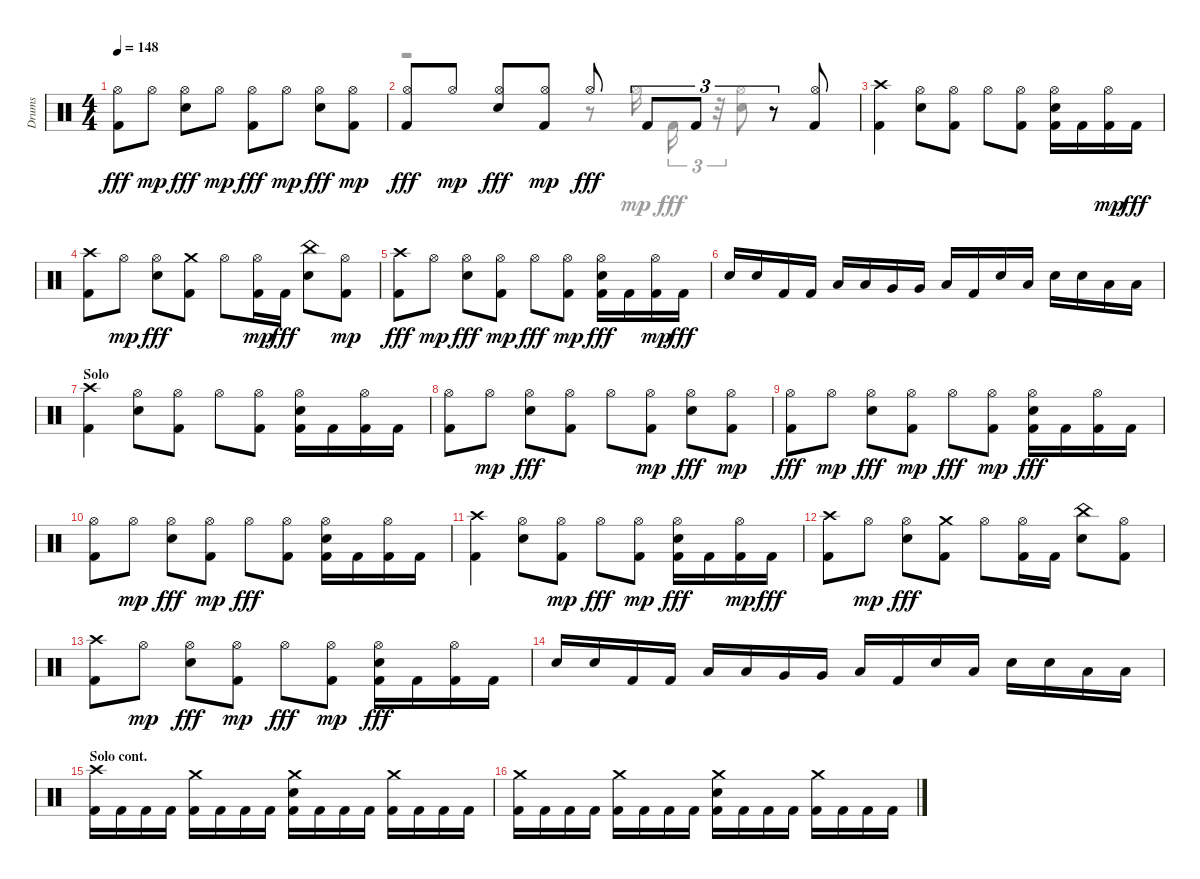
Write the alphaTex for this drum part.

\track ("Drums" "Drums") {instrument percussion}
\staff {score}
\articulation defaults
\voice
\ts (4 4)
\tempo 148
\clef neutral
\ks aminor
("Hi-Hat (open)" "Kick (hit) 2").8{dy fff} "Hi-Hat (open)".8{dy mp} ("Hi-Hat (open)" "Snare (hit) 2").8{dy fff} "Hi-Hat (open)".8{dy mp} ("Hi-Hat (open)" "Kick (hit) 2").8{dy fff} "Hi-Hat (open)".8{dy mp} ("Snare (hit) 2" "Hi-Hat (open)").8{dy fff} ("Hi-Hat (open)" "Kick (hit) 2").8{dy mp} |
("Hi-Hat (open)" "Kick (hit) 2").8{dy fff} "Hi-Hat (open)".8{dy mp} ("Snare (hit) 2" "Hi-Hat (open)").8{dy fff} ("Hi-Hat (open)" "Kick (hit) 2").8{dy mp} "Hi-Hat (open)".8{dy fff} "Kick (hit) 2".8{tu (3 2)} "Kick (hit) 2".8{tu (3 2)} r.8{tu (3 2)} ("Hi-Hat (open)" "Kick (hit) 2").8 |
("Kick (hit) 2" "Crash high (hit)").4 ("Hi-Hat (open)" "Snare (hit) 2").8 ("Hi-Hat (open)" "Kick (hit) 2").8 "Hi-Hat (open)".8 ("Hi-Hat (open)" "Kick (hit) 2").8 ("Snare (hit) 2" "Kick (hit) 2" "Hi-Hat (open)").16 "Kick (hit) 2".16 ("Hi-Hat (open)" "Kick (hit) 2").16{dy mp} "Kick (hit) 2".16{dy fff} |
("Crash high (hit)" "Kick (hit) 2").8 "Hi-Hat (open)".8{dy mp} ("Hi-Hat (open)" "Snare (hit) 2").8{dy fff} ("Crash medium (hit)" "Kick (hit) 2").8 "Hi-Hat (open)".8 ("Kick (hit) 2" "Hi-Hat (open)").16{dy mp} "Kick (hit) 2".16{dy fff} ("China (hit)" "Snare (hit) 2").8 ("Kick (hit) 2" "Hi-Hat (open)").8{dy mp} |
("Crash high (hit)" "Kick (hit) 2").8{dy fff} "Hi-Hat (open)".8{dy mp} ("Snare (hit) 2" "Hi-Hat (open)").8{dy fff} ("Hi-Hat (open)" "Kick (hit) 2").8{dy mp} "Hi-Hat (open)".8{dy fff} ("Hi-Hat (open)" "Kick (hit) 2").8{dy mp} ("Hi-Hat (open)" "Snare (hit) 2" "Kick (hit) 2").16{dy fff} "Kick (hit) 2".16 ("Kick (hit) 2" "Hi-Hat (open)").16{dy mp} "Kick (hit) 2".16{dy fff} |
"Snare (hit) 2".16 "Snare (hit) 2".16 "Kick (hit) 2".16 "Kick (hit) 2".16 "Low Tom (hit)".16 "Low Tom (hit)".16 "Very Low Tom (hit)".16 "Very Low Tom (hit)".16 "Low Floor Tom (hit)".16 "Kick (hit) 2".16 "Snare (hit) 2".16 "Low Floor Tom (hit)".16 "Snare (hit) 2".16 "Snare (hit) 2".16 "Low Floor Tom (hit)".16 "Low Floor Tom (hit)".16 |
\section ("" "Solo")
("Crash high (hit)" "Kick (hit) 2").4 ("Hi-Hat (open)" "Snare (hit) 2").8 ("Kick (hit) 2" "Hi-Hat (open)").8 "Hi-Hat (open)".8 ("Hi-Hat (open)" "Kick (hit) 2").8 ("Snare (hit) 2" "Kick (hit) 2" "Hi-Hat (open)").16 "Kick (hit) 2".16 ("Kick (hit) 2" "Hi-Hat (open)").16 "Kick (hit) 2".16 |
("Kick (hit) 2" "Hi-Hat (open)").8 "Hi-Hat (open)".8{dy mp} ("Hi-Hat (open)" "Snare (hit) 2").8{dy fff} ("Hi-Hat (open)" "Kick (hit) 2").8 "Hi-Hat (open)".8 ("Hi-Hat (open)" "Kick (hit) 2").8{dy mp} ("Snare (hit) 2" "Hi-Hat (open)").8{dy fff} ("Hi-Hat (open)" "Kick (hit) 2").8{dy mp} |
("Kick (hit) 2" "Hi-Hat (open)").8{dy fff} "Hi-Hat (open)".8{dy mp} ("Hi-Hat (open)" "Snare (hit) 2").8{dy fff} ("Kick (hit) 2" "Hi-Hat (open)").8{dy mp} "Hi-Hat (open)".8{dy fff} ("Kick (hit) 2" "Hi-Hat (open)").8{dy mp} ("Hi-Hat (open)" "Snare (hit) 2" "Kick (hit) 2").16{dy fff} "Kick (hit) 2".16 ("Hi-Hat (open)" "Kick (hit) 2").16 "Kick (hit) 2".16 |
("Kick (hit) 2" "Hi-Hat (open)").8 "Hi-Hat (open)".8{dy mp} ("Hi-Hat (open)" "Snare (hit) 2").8{dy fff} ("Hi-Hat (open)" "Kick (hit) 2").8{dy mp} "Hi-Hat (open)".8{dy fff} ("Hi-Hat (open)" "Kick (hit) 2").8 ("Kick (hit) 2" "Hi-Hat (open)" "Snare (hit) 2").16 "Kick (hit) 2".16 ("Kick (hit) 2" "Hi-Hat (open)").16 "Kick (hit) 2".16 |
("Kick (hit) 2" "Crash high (hit)").4 ("Hi-Hat (open)" "Snare (hit) 2").8 ("Hi-Hat (open)" "Kick (hit) 2").8{dy mp} "Hi-Hat (open)".8{dy fff} ("Hi-Hat (open)" "Kick (hit) 2").8{dy mp} ("Snare (hit) 2" "Kick (hit) 2" "Hi-Hat (open)").16{dy fff} "Kick (hit) 2".16 ("Hi-Hat (open)" "Kick (hit) 2").16{dy mp} "Kick (hit) 2".16{dy fff} |
("Crash high (hit)" "Kick (hit) 2").8 "Hi-Hat (open)".8{dy mp} ("Hi-Hat (open)" "Snare (hit) 2").8{dy fff} ("Crash medium (hit)" "Kick (hit) 2").8 "Hi-Hat (open)".8 ("Hi-Hat (open)" "Kick (hit) 2").16 "Kick (hit) 2".16 ("China (hit)" "Snare (hit) 2").8 ("Kick (hit) 2" "Hi-Hat (open)").8 |
("Kick (hit) 2" "Crash high (hit)").8 "Hi-Hat (open)".8{dy mp} ("Snare (hit) 2" "Hi-Hat (open)").8{dy fff} ("Kick (hit) 2" "Hi-Hat (open)").8{dy mp} "Hi-Hat (open)".8{dy fff} ("Kick (hit) 2" "Hi-Hat (open)").8{dy mp} ("Kick (hit) 2" "Hi-Hat (open)" "Snare (hit) 2").16{dy fff} "Kick (hit) 2".16 ("Kick (hit) 2" "Hi-Hat (open)").16 "Kick (hit) 2".16 |
"Snare (hit) 2".16 "Snare (hit) 2".16 "Kick (hit) 2".16 "Kick (hit) 2".16 "Low Tom (hit)".16 "Low Tom (hit)".16 "Very Low Tom (hit)".16 "Very Low Tom (hit)".16 "Low Floor Tom (hit)".16 "Kick (hit) 2".16 "Snare (hit) 2".16 "Low Floor Tom (hit)".16 "Snare (hit) 2".16 "Snare (hit) 2".16 "Low Floor Tom (hit)".16 "Low Floor Tom (hit)".16 |
\section ("" "Solo cont.")
("Crash high (hit)" "Kick (hit) 2").16 "Kick (hit) 2".16 "Kick (hit) 2".16 "Kick (hit) 2".16 ("Kick (hit) 2" "Crash medium (hit)").16 "Kick (hit) 2".16 "Kick (hit) 2".16 "Kick (hit) 2".16 ("Snare (hit) 2" "Kick (hit) 2" "Crash medium (hit)").16 "Kick (hit) 2".16 "Kick (hit) 2".16 "Kick (hit) 2".16 ("Crash medium (hit)" "Kick (hit) 2").16 "Kick (hit) 2".16 "Kick (hit) 2".16 "Kick (hit) 2".16 |
("Kick (hit) 2" "Crash medium (hit)").16 "Kick (hit) 2".16 "Kick (hit) 2".16 "Kick (hit) 2".16 ("Kick (hit) 2" "Crash medium (hit)").16 "Kick (hit) 2".16 "Kick (hit) 2".16 "Kick (hit) 2".16 ("Snare (hit) 2" "Crash medium (hit)" "Kick (hit) 2").16 "Kick (hit) 2".16 "Kick (hit) 2".16 "Kick (hit) 2".16 ("Kick (hit) 2" "Crash medium (hit)").16 "Kick (hit) 2".16 "Kick (hit) 2".16 "Kick (hit) 2".16
\voice
\clef neutral
\ottava regular
\simile none
\ks aminor
|
r.2 r.8 "Hi-Hat (open)".16{dy mp} "Kick (hit) 2".16{tu (3 2) dy fff} r.32{tu (3 2)} ("Hi-Hat (open)" "Snare (hit) 2").8 |
|
|
|
|
|
|
|
|
|
|
|
|
|
